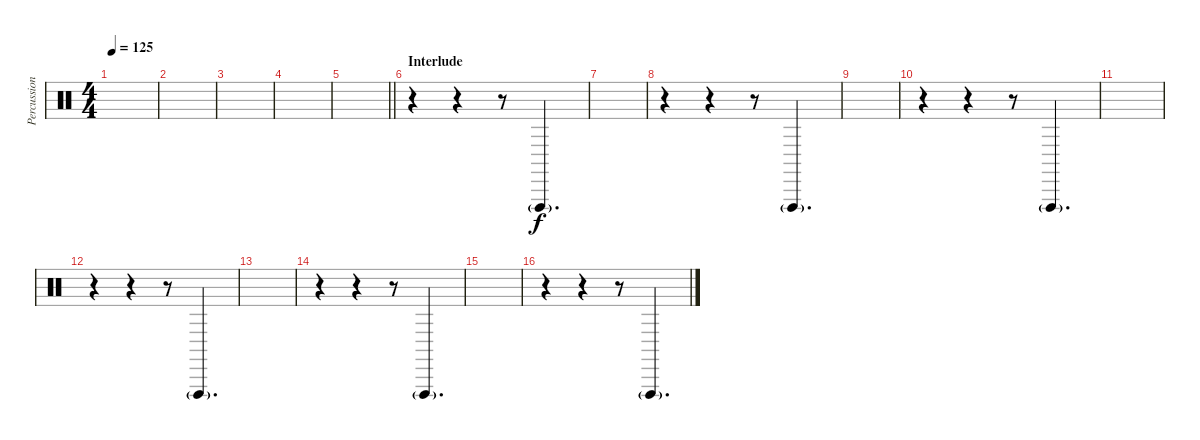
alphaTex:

\track ("Percussions" "Percussion") {instrument percussion}
\staff {score}
\articulation defaults
\ts (4 4)
\tempo 125
\clef neutral
\ks c
|
|
|
|
\barLineRight lightlight
|
\section ("" "Interlude")
r.4 r.4 r.8 "Vibraslap (hit)"{g}.4{d} |
|
r.4 r.4 r.8 "Vibraslap (hit)"{g}.4{d} |
|
r.4 r.4 r.8 "Vibraslap (hit)"{g}.4{d} |
|
r.4 r.4 r.8 "Vibraslap (hit)"{g}.4{d} |
|
r.4 r.4 r.8 "Vibraslap (hit)"{g}.4{d} |
|
r.4 r.4 r.8 "Vibraslap (hit)"{g}.4{d}
